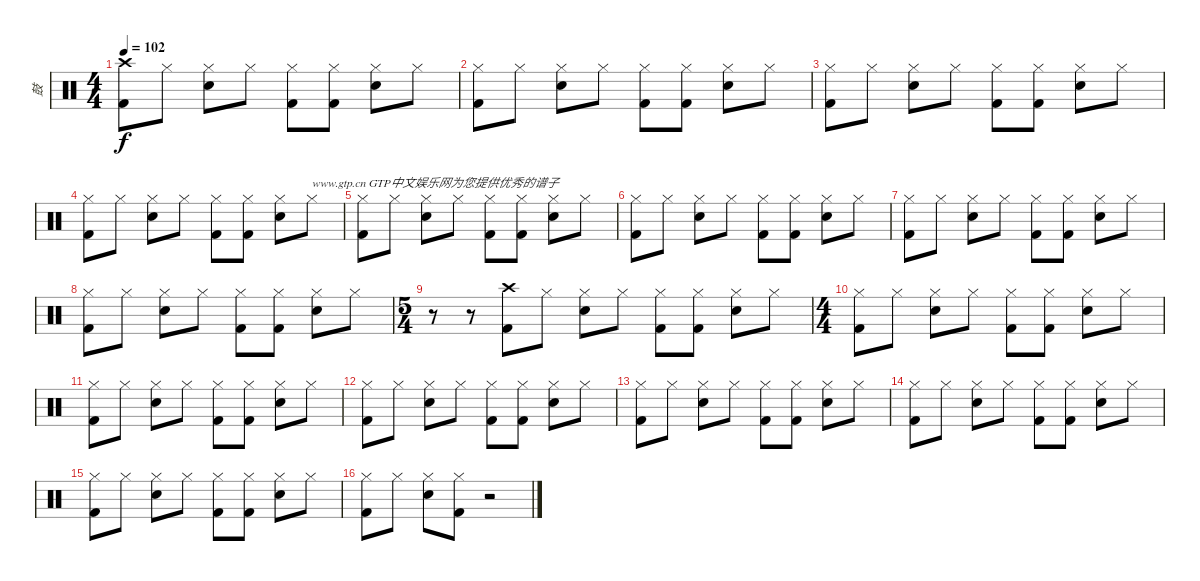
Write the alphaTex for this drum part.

\track ("鼓" "鼓") {instrument percussion}
\staff {score}
\articulation defaults
\ts (4 4)
\tempo 102
\clef neutral
\ks c
("Crash high (hit)" "Kick (hit) 2").8{dy f} "Hi-Hat (closed)".8 ("Hi-Hat (closed)" "Electric Snare (hit)").8 "Hi-Hat (closed)".8 ("Hi-Hat (closed)" "Kick (hit) 2").8 ("Hi-Hat (closed)" "Kick (hit) 2").8 ("Hi-Hat (closed)" "Electric Snare (hit)").8 "Hi-Hat (closed)".8 |
("Hi-Hat (closed)" "Kick (hit) 2").8 "Hi-Hat (closed)".8 ("Hi-Hat (closed)" "Electric Snare (hit)").8 "Hi-Hat (closed)".8 ("Hi-Hat (closed)" "Kick (hit) 2").8 ("Hi-Hat (closed)" "Kick (hit) 2").8 ("Hi-Hat (closed)" "Electric Snare (hit)").8 "Hi-Hat (closed)".8 |
("Hi-Hat (closed)" "Kick (hit) 2").8 "Hi-Hat (closed)".8 ("Hi-Hat (closed)" "Electric Snare (hit)").8 "Hi-Hat (closed)".8 ("Hi-Hat (closed)" "Kick (hit) 2").8 ("Hi-Hat (closed)" "Kick (hit) 2").8 ("Hi-Hat (closed)" "Electric Snare (hit)").8 "Hi-Hat (closed)".8 |
("Hi-Hat (closed)" "Kick (hit) 2").8 "Hi-Hat (closed)".8 ("Hi-Hat (closed)" "Electric Snare (hit)").8 "Hi-Hat (closed)".8 ("Hi-Hat (closed)" "Kick (hit) 2").8 ("Hi-Hat (closed)" "Kick (hit) 2").8 ("Hi-Hat (closed)" "Electric Snare (hit)").8 "Hi-Hat (closed)".8{txt "www.gtp.cn GTP中文娱乐网为您提供优秀的谱子"} |
("Hi-Hat (closed)" "Kick (hit) 2").8 "Hi-Hat (closed)".8 ("Hi-Hat (closed)" "Electric Snare (hit)").8 "Hi-Hat (closed)".8 ("Hi-Hat (closed)" "Kick (hit) 2").8 ("Hi-Hat (closed)" "Kick (hit) 2").8 ("Hi-Hat (closed)" "Electric Snare (hit)").8 "Hi-Hat (closed)".8 |
("Hi-Hat (closed)" "Kick (hit) 2").8 "Hi-Hat (closed)".8 ("Hi-Hat (closed)" "Electric Snare (hit)").8 "Hi-Hat (closed)".8 ("Hi-Hat (closed)" "Kick (hit) 2").8 ("Hi-Hat (closed)" "Kick (hit) 2").8 ("Hi-Hat (closed)" "Electric Snare (hit)").8 "Hi-Hat (closed)".8 |
("Hi-Hat (closed)" "Kick (hit) 2").8 "Hi-Hat (closed)".8 ("Hi-Hat (closed)" "Electric Snare (hit)").8 "Hi-Hat (closed)".8 ("Hi-Hat (closed)" "Kick (hit) 2").8 ("Hi-Hat (closed)" "Kick (hit) 2").8 ("Hi-Hat (closed)" "Electric Snare (hit)").8 "Hi-Hat (closed)".8 |
("Hi-Hat (closed)" "Kick (hit) 2").8 "Hi-Hat (closed)".8 ("Hi-Hat (closed)" "Electric Snare (hit)").8 "Hi-Hat (closed)".8 ("Hi-Hat (closed)" "Kick (hit) 2").8 ("Hi-Hat (closed)" "Kick (hit) 2").8 ("Hi-Hat (closed)" "Electric Snare (hit)").8 "Hi-Hat (closed)".8 |
\ts (5 4)
r.8 r.8 ("Crash high (hit)" "Kick (hit) 2").8 "Hi-Hat (closed)".8 ("Hi-Hat (closed)" "Electric Snare (hit)").8 "Hi-Hat (closed)".8 ("Hi-Hat (closed)" "Kick (hit) 2").8 ("Hi-Hat (closed)" "Kick (hit) 2").8 ("Hi-Hat (closed)" "Electric Snare (hit)").8 "Hi-Hat (closed)".8 |
\ts (4 4)
("Hi-Hat (closed)" "Kick (hit) 2").8 "Hi-Hat (closed)".8 ("Hi-Hat (closed)" "Electric Snare (hit)").8 "Hi-Hat (closed)".8 ("Hi-Hat (closed)" "Kick (hit) 2").8 ("Hi-Hat (closed)" "Kick (hit) 2").8 ("Hi-Hat (closed)" "Electric Snare (hit)").8 "Hi-Hat (closed)".8 |
("Hi-Hat (closed)" "Kick (hit) 2").8 "Hi-Hat (closed)".8 ("Hi-Hat (closed)" "Electric Snare (hit)").8 "Hi-Hat (closed)".8 ("Hi-Hat (closed)" "Kick (hit) 2").8 ("Hi-Hat (closed)" "Kick (hit) 2").8 ("Hi-Hat (closed)" "Electric Snare (hit)").8 "Hi-Hat (closed)".8 |
("Hi-Hat (closed)" "Kick (hit) 2").8 "Hi-Hat (closed)".8 ("Hi-Hat (closed)" "Electric Snare (hit)").8 "Hi-Hat (closed)".8 ("Hi-Hat (closed)" "Kick (hit) 2").8 ("Hi-Hat (closed)" "Kick (hit) 2").8 ("Hi-Hat (closed)" "Electric Snare (hit)").8 "Hi-Hat (closed)".8 |
("Hi-Hat (closed)" "Kick (hit) 2").8 "Hi-Hat (closed)".8 ("Hi-Hat (closed)" "Electric Snare (hit)").8 "Hi-Hat (closed)".8 ("Hi-Hat (closed)" "Kick (hit) 2").8 ("Hi-Hat (closed)" "Kick (hit) 2").8 ("Hi-Hat (closed)" "Electric Snare (hit)").8 "Hi-Hat (closed)".8 |
("Hi-Hat (closed)" "Kick (hit) 2").8 "Hi-Hat (closed)".8 ("Hi-Hat (closed)" "Electric Snare (hit)").8 "Hi-Hat (closed)".8 ("Hi-Hat (closed)" "Kick (hit) 2").8 ("Hi-Hat (closed)" "Kick (hit) 2").8 ("Hi-Hat (closed)" "Electric Snare (hit)").8 "Hi-Hat (closed)".8 |
("Hi-Hat (closed)" "Kick (hit) 2").8 "Hi-Hat (closed)".8 ("Hi-Hat (closed)" "Electric Snare (hit)").8 "Hi-Hat (closed)".8 ("Hi-Hat (closed)" "Kick (hit) 2").8 ("Hi-Hat (closed)" "Kick (hit) 2").8 ("Hi-Hat (closed)" "Electric Snare (hit)").8 "Hi-Hat (closed)".8 |
("Hi-Hat (closed)" "Kick (hit) 2").8 "Hi-Hat (closed)".8 ("Hi-Hat (closed)" "Electric Snare (hit)").8 ("Hi-Hat (closed)" "Kick (hit) 2").8 r.2
